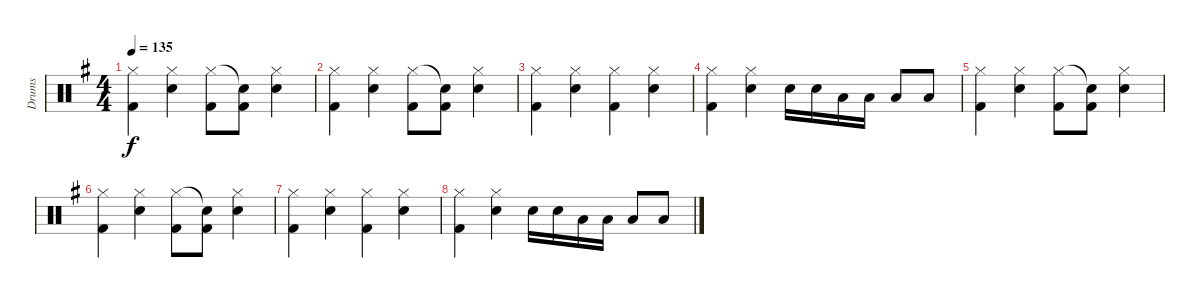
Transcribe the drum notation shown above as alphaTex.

\track ("Drums" "Drums") {instrument percussion}
\staff {score}
\articulation defaults
\ts (4 4)
\tempo 135
\clef neutral
\ks eminor
("Hi-Hat (closed)" "Kick (hit) 2").4{dy f volume 6} ("Hi-Hat (closed)" "Snare (hit) 2").4 ("Hi-Hat (closed)" "Kick (hit) 2").8 ("Snare (hit)"{t} "Kick (hit) 2").8 ("Hi-Hat (closed)" "Snare (hit) 2").4 |
("Hi-Hat (closed)" "Kick (hit) 2").4 ("Hi-Hat (closed)" "Snare (hit) 2").4 ("Hi-Hat (closed)" "Kick (hit) 2").8 ("Snare (hit)"{t} "Kick (hit) 2").8 ("Hi-Hat (closed)" "Snare (hit) 2").4 |
("Hi-Hat (closed)" "Kick (hit) 2").4 ("Hi-Hat (closed)" "Snare (hit) 2").4 ("Hi-Hat (closed)" "Kick (hit) 2").4 ("Hi-Hat (closed)" "Snare (hit) 2").4 |
("Hi-Hat (closed)" "Kick (hit) 2").4 ("Hi-Hat (closed)" "Snare (hit) 2").4 "Snare (hit) 2".16 "Snare (hit) 2".16 "Low Floor Tom (hit)".16 "Low Floor Tom (hit)".16 "Low Floor Tom (hit)".8 "Low Floor Tom (hit)".8 |
("Hi-Hat (closed)" "Kick (hit) 2").4{volume 0} ("Hi-Hat (closed)" "Snare (hit) 2").4 ("Hi-Hat (closed)" "Kick (hit) 2").8 ("Snare (hit)"{t} "Kick (hit) 2").8 ("Hi-Hat (closed)" "Snare (hit) 2").4 |
("Hi-Hat (closed)" "Kick (hit) 2").4 ("Hi-Hat (closed)" "Snare (hit) 2").4 ("Hi-Hat (closed)" "Kick (hit) 2").8 ("Snare (hit)"{t} "Kick (hit) 2").8 ("Hi-Hat (closed)" "Snare (hit) 2").4 |
("Hi-Hat (closed)" "Kick (hit) 2").4 ("Hi-Hat (closed)" "Snare (hit) 2").4 ("Hi-Hat (closed)" "Kick (hit) 2").4 ("Hi-Hat (closed)" "Snare (hit) 2").4 |
("Hi-Hat (closed)" "Kick (hit) 2").4 ("Hi-Hat (closed)" "Snare (hit) 2").4 "Snare (hit) 2".16 "Snare (hit) 2".16 "Low Floor Tom (hit)".16 "Low Floor Tom (hit)".16 "Low Floor Tom (hit)".8 "Low Floor Tom (hit)".8
